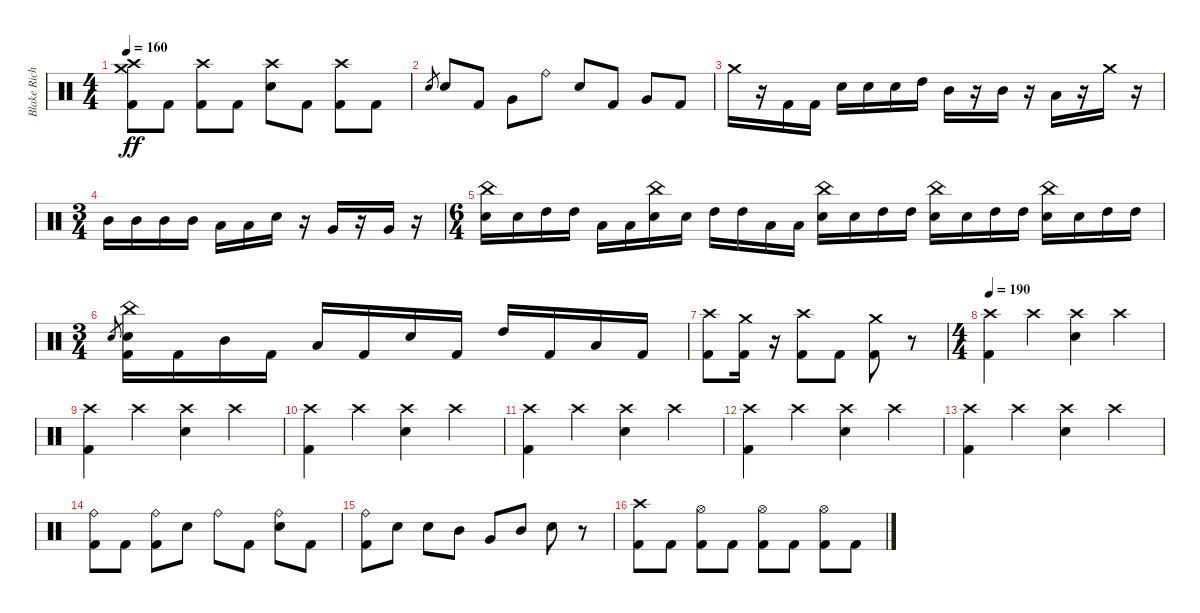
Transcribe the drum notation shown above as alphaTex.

\track ("Blake Richardson" "Blake Rich") {instrument percussion}
\staff {score}
\articulation defaults
\ts (4 4)
\tempo 160
\clef neutral
\ks c
("Crash high (hit)" "Crash medium (hit)" "Kick (hit) 2").8{dy ff} "Kick (hit) 2".8 ("Crash high (hit)" "Kick (hit) 2").8 "Kick (hit) 2".8 ("Crash high (hit)" "Electric Snare (hit)").8 "Kick (hit) 2".8 ("Crash high (hit)" "Kick (hit) 2").8 "Kick (hit) 2".8 |
"Electric Snare (hit)".8{gr} "Electric Snare (hit)".8 "Kick (hit) 2".8 "Very Low Tom (hit)".8 "Ride (bell)".8 "Electric Snare (hit)".8 "Kick (hit) 2".8 "Very Low Tom (hit)".8 "Kick (hit) 2".8 |
"Crash medium (hit)".16 r.16 "Kick (hit) 2".16 "Kick (hit) 2".16 "Electric Snare (hit)".16 "Electric Snare (hit)".16 "Electric Snare (hit)".16 "High Tom (hit)".16 "Mid Tom (hit)".16 r.16 "Mid Tom (hit)".16 r.16 "Low Tom (hit)".16 r.16 "Crash medium (hit)".16 r.16 |
\ts (3 4)
"Mid Tom (hit)".16 "Mid Tom (hit)".16 "Mid Tom (hit)".16 "Mid Tom (hit)".16 "Low Tom (hit)".16 "Low Tom (hit)".16 "Electric Snare (hit)".16 r.16 "Very Low Tom (hit)".16 r.16 "Very Low Tom (hit)".16 r.16 |
\ts (6 4)
("China (hit)" "Electric Snare (hit)").16 "Electric Snare (hit)".16 "High Tom (hit)".16 "High Tom (hit)".16 "Low Tom (hit)".16 "Low Tom (hit)".16 ("China (hit)" "Electric Snare (hit)").16 "Electric Snare (hit)".16 "High Tom (hit)".16 "High Tom (hit)".16 "Low Tom (hit)".16 "Low Tom (hit)".16 ("China (hit)" "Electric Snare (hit)").16 "Electric Snare (hit)".16 "High Tom (hit)".16 "High Tom (hit)".16 ("China (hit)" "Electric Snare (hit)").16 "Electric Snare (hit)".16 "High Tom (hit)".16 "High Tom (hit)".16 ("China (hit)" "Electric Snare (hit)").16 "Electric Snare (hit)".16 "High Tom (hit)".16 "High Tom (hit)".16 |
\ts (3 4)
"Electric Snare (hit)".8{gr} ("China (hit)" "Electric Snare (hit)" "Kick (hit) 2").16 "Kick (hit) 2".16 "Mid Tom (hit)".16 "Kick (hit) 2".16 "Low Tom (hit)".16 "Kick (hit) 2".16 "Electric Snare (hit)".16 "Kick (hit) 2".16 "High Tom (hit)".16 "Kick (hit) 2".16 "Low Tom (hit)".16 "Kick (hit) 2".16 |
("Crash high (hit)" "Kick (hit) 2").8 ("Crash medium (hit)" "Kick (hit) 2").16 r.16 ("Crash high (hit)" "Kick (hit) 2").8 "Kick (hit) 2".8 ("Crash medium (hit)" "Kick (hit) 2").8 r.8 |
\ts (4 4)
\tempo 190
("Crash high (hit)" "Kick (hit) 2").4 "Crash high (hit)".4 ("Crash high (hit)" "Electric Snare (hit)").4 "Crash high (hit)".4 |
("Crash high (hit)" "Kick (hit) 2").4 "Crash high (hit)".4 ("Crash high (hit)" "Electric Snare (hit)").4 "Crash high (hit)".4 |
("Crash high (hit)" "Kick (hit) 2").4 "Crash high (hit)".4 ("Crash high (hit)" "Electric Snare (hit)").4 "Crash high (hit)".4 |
("Crash high (hit)" "Kick (hit) 2").4 "Crash high (hit)".4 ("Crash high (hit)" "Electric Snare (hit)").4 "Crash high (hit)".4 |
("Crash high (hit)" "Kick (hit) 2").4 "Crash high (hit)".4 ("Crash high (hit)" "Electric Snare (hit)").4 "Crash high (hit)".4 |
("Crash high (hit)" "Kick (hit) 2").4 "Crash high (hit)".4 ("Crash high (hit)" "Electric Snare (hit)").4 "Crash high (hit)".4 |
("Ride (bell)" "Kick (hit) 2").8 "Kick (hit) 2".8 ("Ride (bell)" "Kick (hit) 2").8 "Electric Snare (hit)".8 "Ride (bell)".8 "Kick (hit) 2".8 ("Ride (bell)" "Electric Snare (hit)").8 "Kick (hit) 2".8 |
("Ride (bell)" "Kick (hit) 2").8 "Electric Snare (hit)".8 "Electric Snare (hit)".8 "Mid Tom (hit)".8 "Very Low Tom (hit)".8 "Mid Tom (hit)".8 "Electric Snare (hit)".8 r.8 |
("Crash high (hit)" "Kick (hit) 2").8 "Kick (hit) 2".8 ("Hi-Hat (open)" "Kick (hit) 2").8 "Kick (hit) 2".8 ("Hi-Hat (open)" "Kick (hit) 2").8 "Kick (hit) 2".8 ("Hi-Hat (open)" "Kick (hit) 2").8 "Kick (hit) 2".8
